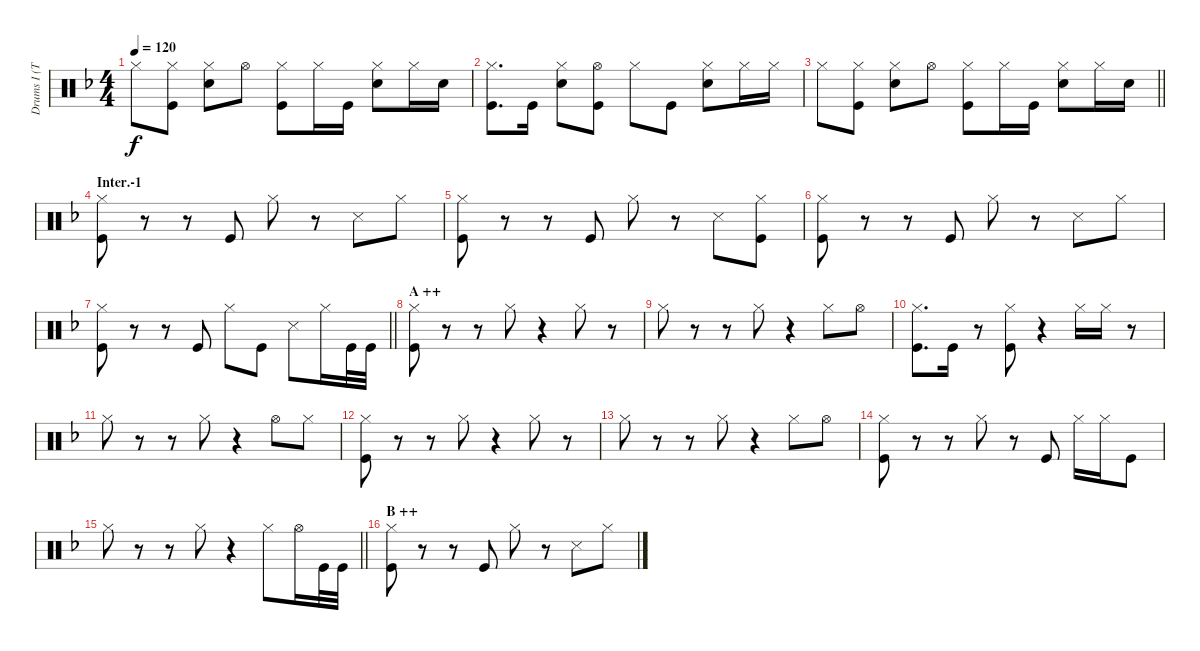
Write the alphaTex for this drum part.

\track ("Drums I (Tainaka Ritsu)" "Drums I (T") {instrument percussion}
\staff {score}
\articulation defaults
\ts (4 4)
\tempo 120
\clef neutral
\ks f "Hi-Hat (closed)".8{dy f}
("Hi-Hat (closed)" "Kick (hit)").8 ("Hi-Hat (closed)" "Snare (hit) 2").8 "Hi-Hat (open)".8 ("Hi-Hat (closed)" "Kick (hit)").8 "Hi-Hat (closed)".16 "Kick (hit)".16 ("Hi-Hat (closed)" "Snare (hit) 2").8 "Hi-Hat (closed)".16 "Snare (hit) 2".16 |
("Hi-Hat (closed)" "Kick (hit)").8{d} "Kick (hit)".16 ("Hi-Hat (closed)" "Snare (hit) 2").8 ("Hi-Hat (open)" "Kick (hit)").8 "Hi-Hat (closed)".8 "Kick (hit)".8 ("Hi-Hat (closed)" "Snare (hit) 2").8 "Hi-Hat (closed)".16 "Hi-Hat (closed)".16 |
\barLineRight lightlight "Hi-Hat (closed)".8
("Hi-Hat (closed)" "Kick (hit)").8 ("Hi-Hat (closed)" "Snare (hit) 2").8 "Hi-Hat (open)".8 ("Hi-Hat (closed)" "Kick (hit)").8 "Hi-Hat (closed)".16 "Kick (hit)".16 ("Hi-Hat (closed)" "Snare (hit) 2").8 "Hi-Hat (closed)".16 "Snare (hit) 2".16 |
\section ("" "Inter.-1")
("Hi-Hat (closed)" "Kick (hit)").8 r.8 r.8 "Kick (hit)".8 "Hi-Hat (closed)".8 r.8 "Snare (side stick) 3".8 "Hi-Hat (closed)".8 |
("Hi-Hat (closed)" "Kick (hit)").8 r.8 r.8 "Kick (hit)".8 "Hi-Hat (closed)".8 r.8 "Snare (side stick) 3".8 ("Hi-Hat (closed)" "Kick (hit)").8 |
("Hi-Hat (closed)" "Kick (hit)").8 r.8 r.8 "Kick (hit)".8 "Hi-Hat (closed)".8 r.8 "Snare (side stick) 3".8 "Hi-Hat (closed)".8 |
\barLineRight lightlight
("Hi-Hat (closed)" "Kick (hit)").8 r.8 r.8 "Kick (hit)".8 "Hi-Hat (closed)".8 "Kick (hit)".8 "Snare (side stick) 3".8 "Hi-Hat (closed)".16 "Kick (hit)".32 "Kick (hit)".32 |
\section ("" "A ++")
("Hi-Hat (closed)" "Kick (hit)").8 r.8 r.8 "Hi-Hat (closed)".8 r.4 "Hi-Hat (closed)".8 r.8 |
"Hi-Hat (closed)".8 r.8 r.8 "Hi-Hat (closed)".8 r.4 "Hi-Hat (closed)".8 "Hi-Hat (open)".8 |
("Hi-Hat (closed)" "Kick (hit)").8{d} "Kick (hit)".16 r.8 ("Hi-Hat (closed)" "Kick (hit)").8 r.4 "Hi-Hat (closed)".16 "Hi-Hat (closed)".16 r.8 |
"Hi-Hat (closed)".8 r.8 r.8 "Hi-Hat (closed)".8 r.4 "Hi-Hat (open)".8 "Hi-Hat (closed)".8 |
("Hi-Hat (closed)" "Kick (hit)").8 r.8 r.8 "Hi-Hat (closed)".8 r.4 "Hi-Hat (closed)".8 r.8 |
"Hi-Hat (closed)".8 r.8 r.8 "Hi-Hat (closed)".8 r.4 "Hi-Hat (closed)".8 "Hi-Hat (open)".8 |
("Hi-Hat (closed)" "Kick (hit)").8 r.8 r.8 "Hi-Hat (closed)".8 r.8 "Kick (hit)".8 "Hi-Hat (closed)".16 "Hi-Hat (closed)".16 "Kick (hit)".8 |
\barLineRight lightlight "Hi-Hat (closed)".8
r.8 r.8 "Hi-Hat (closed)".8 r.4 "Hi-Hat (closed)".8 "Hi-Hat (open)".16 "Kick (hit)".32 "Kick (hit)".32 |
\section ("" "B ++")
("Hi-Hat (closed)" "Kick (hit)").8 r.8 r.8 "Kick (hit)".8 "Hi-Hat (closed)".8 r.8 "Snare (side stick) 3".8 "Hi-Hat (closed)".8
